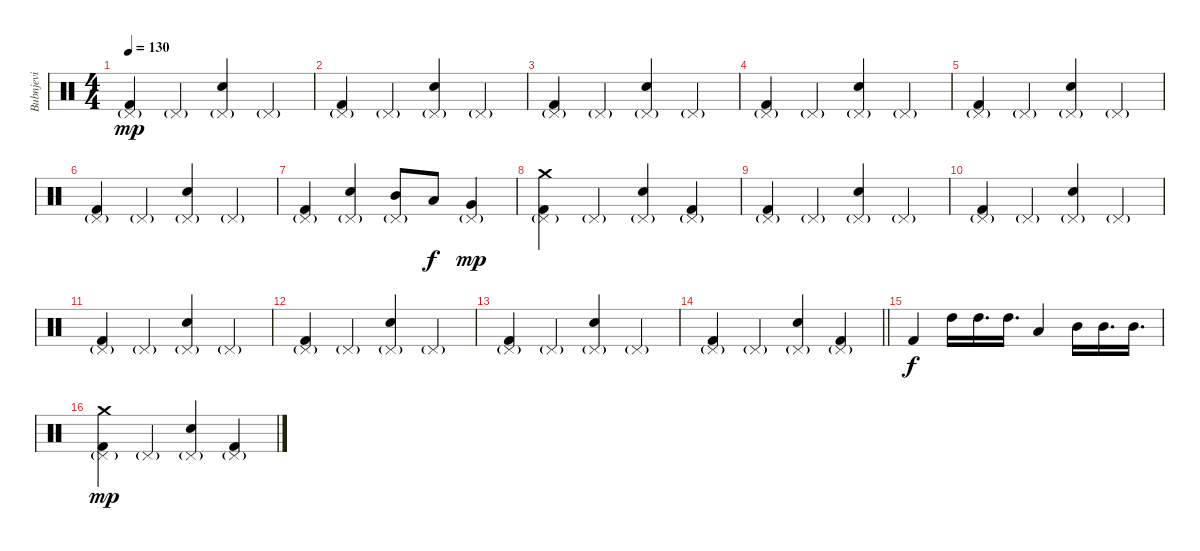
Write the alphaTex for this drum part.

\track ("Bubnjevi" "Bubnjevi") {instrument percussion}
\staff {score}
\articulation defaults
\ts (4 4)
\tempo 130
\clef neutral
\ks c
("Pedal Hi-Hat (hit)"{g} "Kick (hit) 2").4{dy mp} "Pedal Hi-Hat (hit)"{g}.4 ("Pedal Hi-Hat (hit)"{g} "Electric Snare (hit)").4 "Pedal Hi-Hat (hit)"{g}.4 |
("Pedal Hi-Hat (hit)"{g} "Kick (hit) 2").4 "Pedal Hi-Hat (hit)"{g}.4 ("Pedal Hi-Hat (hit)"{g} "Electric Snare (hit)").4 "Pedal Hi-Hat (hit)"{g}.4 |
("Pedal Hi-Hat (hit)"{g} "Kick (hit) 2").4 "Pedal Hi-Hat (hit)"{g}.4 ("Pedal Hi-Hat (hit)"{g} "Electric Snare (hit)").4 "Pedal Hi-Hat (hit)"{g}.4 |
("Pedal Hi-Hat (hit)"{g} "Kick (hit) 2").4 "Pedal Hi-Hat (hit)"{g}.4 ("Pedal Hi-Hat (hit)"{g} "Electric Snare (hit)").4 "Pedal Hi-Hat (hit)"{g}.4 |
("Pedal Hi-Hat (hit)"{g} "Kick (hit) 2").4 "Pedal Hi-Hat (hit)"{g}.4 ("Pedal Hi-Hat (hit)"{g} "Electric Snare (hit)").4 "Pedal Hi-Hat (hit)"{g}.4 |
("Pedal Hi-Hat (hit)"{g} "Kick (hit) 2").4 "Pedal Hi-Hat (hit)"{g}.4 ("Pedal Hi-Hat (hit)"{g} "Electric Snare (hit)").4 "Pedal Hi-Hat (hit)"{g}.4 |
("Pedal Hi-Hat (hit)"{g} "Kick (hit) 2").4 ("Pedal Hi-Hat (hit)"{g} "Electric Snare (hit)").4 ("Pedal Hi-Hat (hit)"{g} "Mid Tom (hit)").8 "Low Tom (hit)".8{dy f} ("Pedal Hi-Hat (hit)"{g} "Very Low Tom (hit)").4{dy mp} |
("Crash medium (hit)" "Pedal Hi-Hat (hit)"{g} "Kick (hit) 2").4 "Pedal Hi-Hat (hit)"{g}.4 ("Pedal Hi-Hat (hit)"{g} "Electric Snare (hit)").4 ("Pedal Hi-Hat (hit)"{g} "Kick (hit) 2").4 |
("Pedal Hi-Hat (hit)"{g} "Kick (hit) 2").4 "Pedal Hi-Hat (hit)"{g}.4 ("Pedal Hi-Hat (hit)"{g} "Electric Snare (hit)").4 "Pedal Hi-Hat (hit)"{g}.4 |
("Pedal Hi-Hat (hit)"{g} "Kick (hit) 2").4 "Pedal Hi-Hat (hit)"{g}.4 ("Pedal Hi-Hat (hit)"{g} "Electric Snare (hit)").4 "Pedal Hi-Hat (hit)"{g}.4 |
("Pedal Hi-Hat (hit)"{g} "Kick (hit) 2").4 "Pedal Hi-Hat (hit)"{g}.4 ("Pedal Hi-Hat (hit)"{g} "Electric Snare (hit)").4 "Pedal Hi-Hat (hit)"{g}.4 |
("Pedal Hi-Hat (hit)"{g} "Kick (hit) 2").4 "Pedal Hi-Hat (hit)"{g}.4 ("Pedal Hi-Hat (hit)"{g} "Electric Snare (hit)").4 "Pedal Hi-Hat (hit)"{g}.4 |
("Pedal Hi-Hat (hit)"{g} "Kick (hit) 2").4 "Pedal Hi-Hat (hit)"{g}.4 ("Pedal Hi-Hat (hit)"{g} "Electric Snare (hit)").4 "Pedal Hi-Hat (hit)"{g}.4 |
\barLineRight lightlight
("Pedal Hi-Hat (hit)"{g} "Kick (hit) 2").4 "Pedal Hi-Hat (hit)"{g}.4 ("Pedal Hi-Hat (hit)"{g} "Electric Snare (hit)").4 ("Pedal Hi-Hat (hit)"{g} "Kick (hit) 2").4 |
"Kick (hit) 2".4{dy f} "High Tom (hit)".16 "High Tom (hit)".16{d} "High Tom (hit)".16{d} "Low Tom (hit)".4 "Mid Tom (hit)".16 "Mid Tom (hit)".16{d} "Mid Tom (hit)".16{d} |
("Crash medium (hit)" "Pedal Hi-Hat (hit)"{g} "Kick (hit) 2").4{dy mp} "Pedal Hi-Hat (hit)"{g}.4 ("Pedal Hi-Hat (hit)"{g} "Electric Snare (hit)").4 ("Pedal Hi-Hat (hit)"{g} "Kick (hit) 2").4
